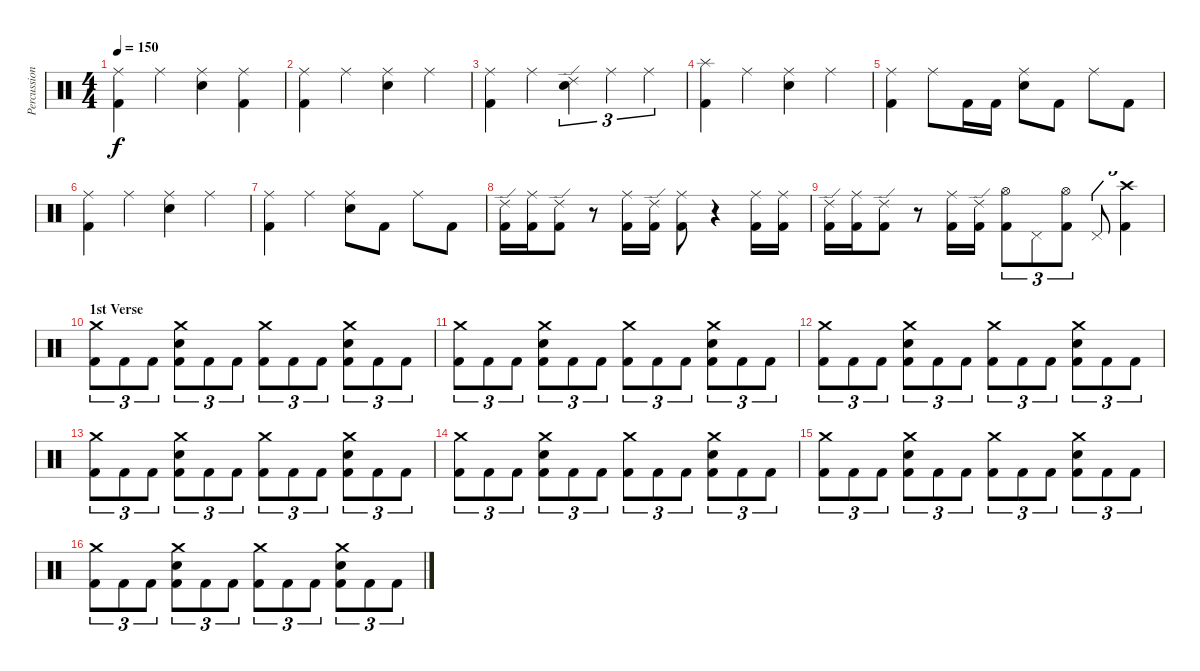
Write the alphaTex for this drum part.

\track ("Percussion" "Percussion") {instrument percussion}
\staff {score}
\articulation defaults
\ts (4 4)
\tempo 150
\clef neutral
\ks c
("Kick (hit) 2" "Ride (middle)").4{dy f} "Ride (middle)".4 ("Electric Snare (hit)" "Ride (middle)").4 ("Kick (hit) 2" "Ride (middle)").4 |
("Kick (hit) 2" "Ride (middle)").4 "Ride (middle)".4 ("Electric Snare (hit)" "Ride (middle)").4 "Ride (middle)".4 |
("Kick (hit) 2" "Ride (middle)").4 "Ride (middle)".4 ("Electric Snare (hit)" "Ride (edge) 2").4{tu (3 2)} "Ride (middle)".4{tu (3 2)} "Ride (middle)".4{tu (3 2)} |
("Kick (hit) 2" "Splash (hit)").4 "Ride (middle)".4 ("Electric Snare (hit)" "Ride (middle)").4 "Ride (middle)".4 |
("Kick (hit) 2" "Ride (middle)").4 "Ride (middle)".8 "Kick (hit) 2".16 "Kick (hit) 2".16 ("Electric Snare (hit)" "Ride (middle)").8 "Kick (hit) 2".8 "Ride (middle)".8 "Kick (hit) 2".8 |
("Kick (hit) 2" "Ride (middle)").4 "Ride (middle)".4 ("Electric Snare (hit)" "Ride (middle)").4 "Ride (middle)".4 |
("Kick (hit) 2" "Ride (middle)").4 "Ride (middle)".4 ("Electric Snare (hit)" "Ride (middle)").8 "Kick (hit) 2".8 "Ride (middle)".8 "Kick (hit) 2".8 |
("Kick (hit) 2" "Ride (edge) 2").16 ("Kick (hit) 2" "Ride (middle)").16 ("Kick (hit) 2" "Ride (edge) 2").8 r.8 ("Kick (hit) 2" "Ride (middle)").16 ("Kick (hit) 2" "Ride (edge) 2").16 ("Kick (hit) 2" "Ride (middle)").8 r.4 ("Kick (hit) 2" "Ride (middle)").16 ("Kick (hit) 2" "Ride (middle)").16 |
("Kick (hit) 2" "Ride (edge) 2").16 ("Kick (hit) 2" "Ride (middle)").16 ("Kick (hit) 2" "Ride (edge) 2").8 r.8 ("Kick (hit) 2" "Ride (middle)").16 ("Kick (hit) 2" "Ride (edge) 2").16 ("Kick (hit) 2" "Hi-Hat (open)").8{tu (3 2)} "Pedal Hi-Hat (hit)".8{tu (3 2)} ("Kick (hit) 2" "Hi-Hat (open)").8{tu (3 2)} "Pedal Hi-Hat (hit)".8{tu (3 2)} ("Kick (hit) 2" "Crash high (hit)").4{tu (3 2)} |
\section ("" "1st Verse")
("Kick (hit) 2" "Crash medium (hit)").8{tu (3 2)} "Kick (hit) 2".8{tu (3 2)} "Kick (hit) 2".8{tu (3 2)} ("Kick (hit) 2" "Electric Snare (hit)" "Crash medium (hit)").8{tu (3 2)} "Kick (hit) 2".8{tu (3 2)} "Kick (hit) 2".8{tu (3 2)} ("Kick (hit) 2" "Crash medium (hit)").8{tu (3 2)} "Kick (hit) 2".8{tu (3 2)} "Kick (hit) 2".8{tu (3 2)} ("Kick (hit) 2" "Electric Snare (hit)" "Crash medium (hit)").8{tu (3 2)} "Kick (hit) 2".8{tu (3 2)} "Kick (hit) 2".8{tu (3 2)} |
("Kick (hit) 2" "Crash medium (hit)").8{tu (3 2)} "Kick (hit) 2".8{tu (3 2)} "Kick (hit) 2".8{tu (3 2)} ("Kick (hit) 2" "Electric Snare (hit)" "Crash medium (hit)").8{tu (3 2)} "Kick (hit) 2".8{tu (3 2)} "Kick (hit) 2".8{tu (3 2)} ("Kick (hit) 2" "Crash medium (hit)").8{tu (3 2)} "Kick (hit) 2".8{tu (3 2)} "Kick (hit) 2".8{tu (3 2)} ("Kick (hit) 2" "Electric Snare (hit)" "Crash medium (hit)").8{tu (3 2)} "Kick (hit) 2".8{tu (3 2)} "Kick (hit) 2".8{tu (3 2)} |
("Kick (hit) 2" "Crash medium (hit)").8{tu (3 2)} "Kick (hit) 2".8{tu (3 2)} "Kick (hit) 2".8{tu (3 2)} ("Kick (hit) 2" "Electric Snare (hit)" "Crash medium (hit)").8{tu (3 2)} "Kick (hit) 2".8{tu (3 2)} "Kick (hit) 2".8{tu (3 2)} ("Kick (hit) 2" "Crash medium (hit)").8{tu (3 2)} "Kick (hit) 2".8{tu (3 2)} "Kick (hit) 2".8{tu (3 2)} ("Kick (hit) 2" "Electric Snare (hit)" "Crash medium (hit)").8{tu (3 2)} "Kick (hit) 2".8{tu (3 2)} "Kick (hit) 2".8{tu (3 2)} |
("Kick (hit) 2" "Crash medium (hit)").8{tu (3 2)} "Kick (hit) 2".8{tu (3 2)} "Kick (hit) 2".8{tu (3 2)} ("Kick (hit) 2" "Electric Snare (hit)" "Crash medium (hit)").8{tu (3 2)} "Kick (hit) 2".8{tu (3 2)} "Kick (hit) 2".8{tu (3 2)} ("Kick (hit) 2" "Crash medium (hit)").8{tu (3 2)} "Kick (hit) 2".8{tu (3 2)} "Kick (hit) 2".8{tu (3 2)} ("Kick (hit) 2" "Electric Snare (hit)" "Crash medium (hit)").8{tu (3 2)} "Kick (hit) 2".8{tu (3 2)} "Kick (hit) 2".8{tu (3 2)} |
("Kick (hit) 2" "Crash medium (hit)").8{tu (3 2)} "Kick (hit) 2".8{tu (3 2)} "Kick (hit) 2".8{tu (3 2)} ("Kick (hit) 2" "Electric Snare (hit)" "Crash medium (hit)").8{tu (3 2)} "Kick (hit) 2".8{tu (3 2)} "Kick (hit) 2".8{tu (3 2)} ("Kick (hit) 2" "Crash medium (hit)").8{tu (3 2)} "Kick (hit) 2".8{tu (3 2)} "Kick (hit) 2".8{tu (3 2)} ("Kick (hit) 2" "Electric Snare (hit)" "Crash medium (hit)").8{tu (3 2)} "Kick (hit) 2".8{tu (3 2)} "Kick (hit) 2".8{tu (3 2)} |
("Kick (hit) 2" "Crash medium (hit)").8{tu (3 2)} "Kick (hit) 2".8{tu (3 2)} "Kick (hit) 2".8{tu (3 2)} ("Kick (hit) 2" "Electric Snare (hit)" "Crash medium (hit)").8{tu (3 2)} "Kick (hit) 2".8{tu (3 2)} "Kick (hit) 2".8{tu (3 2)} ("Kick (hit) 2" "Crash medium (hit)").8{tu (3 2)} "Kick (hit) 2".8{tu (3 2)} "Kick (hit) 2".8{tu (3 2)} ("Kick (hit) 2" "Electric Snare (hit)" "Crash medium (hit)").8{tu (3 2)} "Kick (hit) 2".8{tu (3 2)} "Kick (hit) 2".8{tu (3 2)} |
("Kick (hit) 2" "Crash medium (hit)").8{tu (3 2)} "Kick (hit) 2".8{tu (3 2)} "Kick (hit) 2".8{tu (3 2)} ("Kick (hit) 2" "Electric Snare (hit)" "Crash medium (hit)").8{tu (3 2)} "Kick (hit) 2".8{tu (3 2)} "Kick (hit) 2".8{tu (3 2)} ("Kick (hit) 2" "Crash medium (hit)").8{tu (3 2)} "Kick (hit) 2".8{tu (3 2)} "Kick (hit) 2".8{tu (3 2)} ("Kick (hit) 2" "Electric Snare (hit)" "Crash medium (hit)").8{tu (3 2)} "Kick (hit) 2".8{tu (3 2)} "Kick (hit) 2".8{tu (3 2)}
